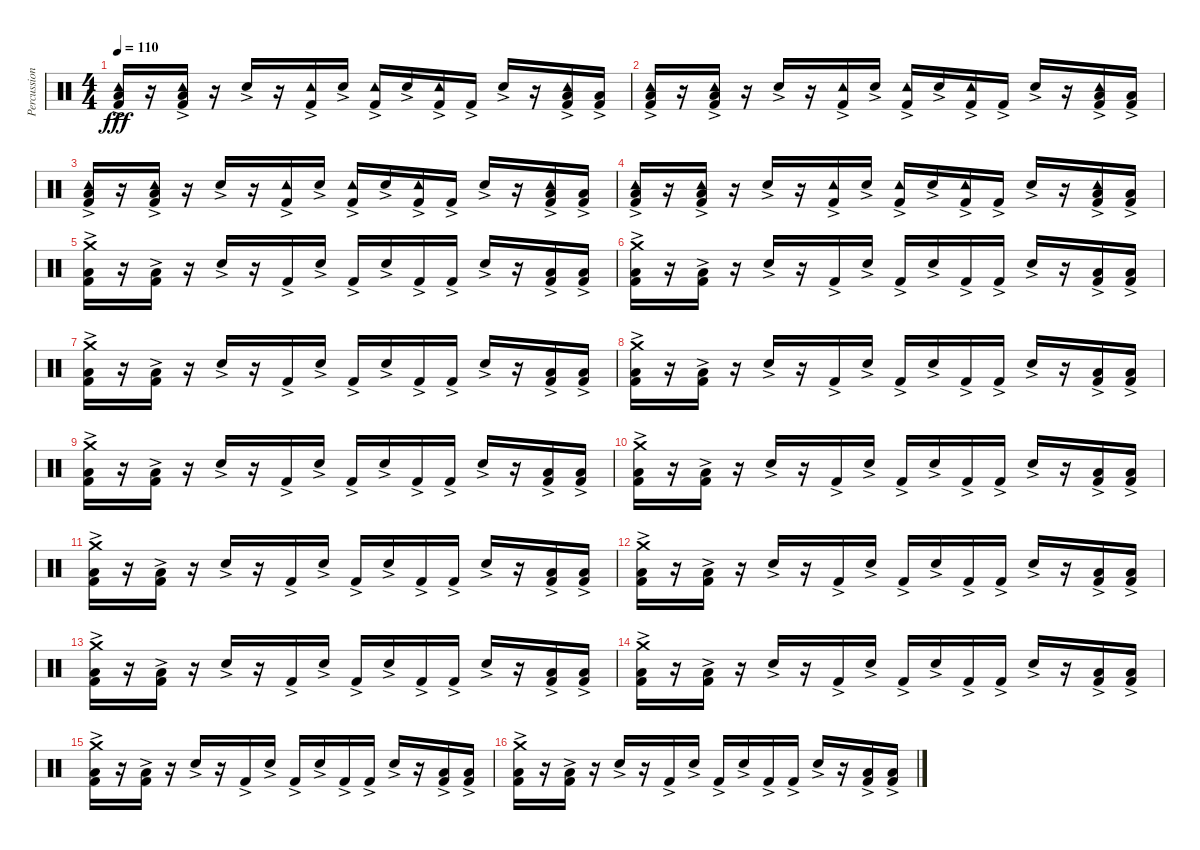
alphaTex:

\track ("Percussion" "Percussion") {instrument percussion}
\staff {score}
\articulation defaults
\ts (4 4)
\tempo 110
\clef neutral
\ks c
("Kick (hit) 2"{ac} "Low Floor Tom (hit)" "Tambourine (hit)"{ac}).16{dy fff} r.16 ("Kick (hit) 2"{ac} "Low Floor Tom (hit)" "Tambourine (hit)"{ac}).16 r.16 "Snare (hit) 2"{ac}.16 r.16 ("Kick (hit) 2"{ac} "Tambourine (hit)"{ac}).16 "Snare (hit) 2"{ac}.16 ("Kick (hit) 2"{ac} "Tambourine (hit)"{ac}).16 "Snare (hit) 2"{ac}.16 ("Kick (hit) 2"{ac} "Tambourine (hit)"{ac}).16 "Kick (hit) 2"{ac}.16 "Snare (hit) 2"{ac}.16 r.16 ("Kick (hit) 2"{ac} "Low Floor Tom (hit)" "Tambourine (hit)"{ac}).16 ("Kick (hit) 2"{ac} "Low Floor Tom (hit)").16 |
("Kick (hit) 2"{ac} "Low Floor Tom (hit)" "Tambourine (hit)"{ac}).16 r.16 ("Kick (hit) 2"{ac} "Low Floor Tom (hit)" "Tambourine (hit)"{ac}).16 r.16 "Snare (hit) 2"{ac}.16 r.16 ("Kick (hit) 2"{ac} "Tambourine (hit)"{ac}).16 "Snare (hit) 2"{ac}.16 ("Kick (hit) 2"{ac} "Tambourine (hit)"{ac}).16 "Snare (hit) 2"{ac}.16 ("Kick (hit) 2"{ac} "Tambourine (hit)"{ac}).16 "Kick (hit) 2"{ac}.16 "Snare (hit) 2"{ac}.16 r.16 ("Kick (hit) 2"{ac} "Low Floor Tom (hit)" "Tambourine (hit)"{ac}).16 ("Kick (hit) 2"{ac} "Low Floor Tom (hit)").16 |
("Kick (hit) 2"{ac} "Low Floor Tom (hit)" "Tambourine (hit)"{ac}).16 r.16 ("Kick (hit) 2"{ac} "Low Floor Tom (hit)" "Tambourine (hit)"{ac}).16 r.16 "Snare (hit) 2"{ac}.16 r.16 ("Kick (hit) 2"{ac} "Tambourine (hit)"{ac}).16 "Snare (hit) 2"{ac}.16 ("Kick (hit) 2"{ac} "Tambourine (hit)"{ac}).16 "Snare (hit) 2"{ac}.16 ("Kick (hit) 2"{ac} "Tambourine (hit)"{ac}).16 "Kick (hit) 2"{ac}.16 "Snare (hit) 2"{ac}.16 r.16 ("Kick (hit) 2"{ac} "Low Floor Tom (hit)" "Tambourine (hit)"{ac}).16 ("Kick (hit) 2"{ac} "Low Floor Tom (hit)").16 |
("Kick (hit) 2"{ac} "Low Floor Tom (hit)" "Tambourine (hit)"{ac}).16 r.16 ("Kick (hit) 2"{ac} "Low Floor Tom (hit)" "Tambourine (hit)"{ac}).16 r.16 "Snare (hit) 2"{ac}.16 r.16 ("Kick (hit) 2"{ac} "Tambourine (hit)"{ac}).16 "Snare (hit) 2"{ac}.16 ("Kick (hit) 2"{ac} "Tambourine (hit)"{ac}).16 "Snare (hit) 2"{ac}.16 ("Kick (hit) 2"{ac} "Tambourine (hit)"{ac}).16 "Kick (hit) 2"{ac}.16 "Snare (hit) 2"{ac}.16 r.16 ("Kick (hit) 2"{ac} "Low Floor Tom (hit)" "Tambourine (hit)"{ac}).16 ("Kick (hit) 2"{ac} "Low Floor Tom (hit)").16 |
("Crash medium (hit)" "Kick (hit) 2"{ac} "Low Floor Tom (hit)").16 r.16 ("Kick (hit) 2"{ac} "Low Floor Tom (hit)").16 r.16 "Snare (hit) 2"{ac}.16 r.16 "Kick (hit) 2"{ac}.16 "Snare (hit) 2"{ac}.16 "Kick (hit) 2"{ac}.16 "Snare (hit) 2"{ac}.16 "Kick (hit) 2"{ac}.16 "Kick (hit) 2"{ac}.16 "Snare (hit) 2"{ac}.16 r.16 ("Kick (hit) 2"{ac} "Low Floor Tom (hit)").16 ("Kick (hit) 2"{ac} "Low Floor Tom (hit)").16 |
("Crash medium (hit)" "Kick (hit) 2"{ac} "Low Floor Tom (hit)").16 r.16 ("Kick (hit) 2"{ac} "Low Floor Tom (hit)").16 r.16 "Snare (hit) 2"{ac}.16 r.16 "Kick (hit) 2"{ac}.16 "Snare (hit) 2"{ac}.16 "Kick (hit) 2"{ac}.16 "Snare (hit) 2"{ac}.16 "Kick (hit) 2"{ac}.16 "Kick (hit) 2"{ac}.16 "Snare (hit) 2"{ac}.16 r.16 ("Kick (hit) 2"{ac} "Low Floor Tom (hit)").16 ("Kick (hit) 2"{ac} "Low Floor Tom (hit)").16 |
("Crash medium (hit)" "Kick (hit) 2"{ac} "Low Floor Tom (hit)").16 r.16 ("Kick (hit) 2"{ac} "Low Floor Tom (hit)").16 r.16 "Snare (hit) 2"{ac}.16 r.16 "Kick (hit) 2"{ac}.16 "Snare (hit) 2"{ac}.16 "Kick (hit) 2"{ac}.16 "Snare (hit) 2"{ac}.16 "Kick (hit) 2"{ac}.16 "Kick (hit) 2"{ac}.16 "Snare (hit) 2"{ac}.16 r.16 ("Kick (hit) 2"{ac} "Low Floor Tom (hit)").16 ("Kick (hit) 2"{ac} "Low Floor Tom (hit)").16 |
("Crash medium (hit)" "Kick (hit) 2"{ac} "Low Floor Tom (hit)").16 r.16 ("Kick (hit) 2"{ac} "Low Floor Tom (hit)").16 r.16 "Snare (hit) 2"{ac}.16 r.16 "Kick (hit) 2"{ac}.16 "Snare (hit) 2"{ac}.16 "Kick (hit) 2"{ac}.16 "Snare (hit) 2"{ac}.16 "Kick (hit) 2"{ac}.16 "Kick (hit) 2"{ac}.16 "Snare (hit) 2"{ac}.16 r.16 ("Kick (hit) 2"{ac} "Low Floor Tom (hit)").16 ("Kick (hit) 2"{ac} "Low Floor Tom (hit)").16 |
("Crash medium (hit)" "Kick (hit) 2"{ac} "Low Floor Tom (hit)").16 r.16 ("Kick (hit) 2"{ac} "Low Floor Tom (hit)").16 r.16 "Snare (hit) 2"{ac}.16 r.16 "Kick (hit) 2"{ac}.16 "Snare (hit) 2"{ac}.16 "Kick (hit) 2"{ac}.16 "Snare (hit) 2"{ac}.16 "Kick (hit) 2"{ac}.16 "Kick (hit) 2"{ac}.16 "Snare (hit) 2"{ac}.16 r.16 ("Kick (hit) 2"{ac} "Low Floor Tom (hit)").16 ("Kick (hit) 2"{ac} "Low Floor Tom (hit)").16 |
("Crash medium (hit)" "Kick (hit) 2"{ac} "Low Floor Tom (hit)").16 r.16 ("Kick (hit) 2"{ac} "Low Floor Tom (hit)").16 r.16 "Snare (hit) 2"{ac}.16 r.16 "Kick (hit) 2"{ac}.16 "Snare (hit) 2"{ac}.16 "Kick (hit) 2"{ac}.16 "Snare (hit) 2"{ac}.16 "Kick (hit) 2"{ac}.16 "Kick (hit) 2"{ac}.16 "Snare (hit) 2"{ac}.16 r.16 ("Kick (hit) 2"{ac} "Low Floor Tom (hit)").16 ("Kick (hit) 2"{ac} "Low Floor Tom (hit)").16 |
("Crash medium (hit)" "Kick (hit) 2"{ac} "Low Floor Tom (hit)").16 r.16 ("Kick (hit) 2"{ac} "Low Floor Tom (hit)").16 r.16 "Snare (hit) 2"{ac}.16 r.16 "Kick (hit) 2"{ac}.16 "Snare (hit) 2"{ac}.16 "Kick (hit) 2"{ac}.16 "Snare (hit) 2"{ac}.16 "Kick (hit) 2"{ac}.16 "Kick (hit) 2"{ac}.16 "Snare (hit) 2"{ac}.16 r.16 ("Kick (hit) 2"{ac} "Low Floor Tom (hit)").16 ("Kick (hit) 2"{ac} "Low Floor Tom (hit)").16 |
("Crash medium (hit)" "Kick (hit) 2"{ac} "Low Floor Tom (hit)").16 r.16 ("Kick (hit) 2"{ac} "Low Floor Tom (hit)").16 r.16 "Snare (hit) 2"{ac}.16 r.16 "Kick (hit) 2"{ac}.16 "Snare (hit) 2"{ac}.16 "Kick (hit) 2"{ac}.16 "Snare (hit) 2"{ac}.16 "Kick (hit) 2"{ac}.16 "Kick (hit) 2"{ac}.16 "Snare (hit) 2"{ac}.16 r.16 ("Kick (hit) 2"{ac} "Low Floor Tom (hit)").16 ("Kick (hit) 2"{ac} "Low Floor Tom (hit)").16 |
("Crash medium (hit)" "Kick (hit) 2"{ac} "Low Floor Tom (hit)").16 r.16 ("Kick (hit) 2"{ac} "Low Floor Tom (hit)").16 r.16 "Snare (hit) 2"{ac}.16 r.16 "Kick (hit) 2"{ac}.16 "Snare (hit) 2"{ac}.16 "Kick (hit) 2"{ac}.16 "Snare (hit) 2"{ac}.16 "Kick (hit) 2"{ac}.16 "Kick (hit) 2"{ac}.16 "Snare (hit) 2"{ac}.16 r.16 ("Kick (hit) 2"{ac} "Low Floor Tom (hit)").16 ("Kick (hit) 2"{ac} "Low Floor Tom (hit)").16 |
("Crash medium (hit)" "Kick (hit) 2"{ac} "Low Floor Tom (hit)").16 r.16 ("Kick (hit) 2"{ac} "Low Floor Tom (hit)").16 r.16 "Snare (hit) 2"{ac}.16 r.16 "Kick (hit) 2"{ac}.16 "Snare (hit) 2"{ac}.16 "Kick (hit) 2"{ac}.16 "Snare (hit) 2"{ac}.16 "Kick (hit) 2"{ac}.16 "Kick (hit) 2"{ac}.16 "Snare (hit) 2"{ac}.16 r.16 ("Kick (hit) 2"{ac} "Low Floor Tom (hit)").16 ("Kick (hit) 2"{ac} "Low Floor Tom (hit)").16 |
("Crash medium (hit)" "Kick (hit) 2"{ac} "Low Floor Tom (hit)").16 r.16 ("Kick (hit) 2"{ac} "Low Floor Tom (hit)").16 r.16 "Snare (hit) 2"{ac}.16 r.16 "Kick (hit) 2"{ac}.16 "Snare (hit) 2"{ac}.16 "Kick (hit) 2"{ac}.16 "Snare (hit) 2"{ac}.16 "Kick (hit) 2"{ac}.16 "Kick (hit) 2"{ac}.16 "Snare (hit) 2"{ac}.16 r.16 ("Kick (hit) 2"{ac} "Low Floor Tom (hit)").16 ("Kick (hit) 2"{ac} "Low Floor Tom (hit)").16 |
("Crash medium (hit)" "Kick (hit) 2"{ac} "Low Floor Tom (hit)").16 r.16 ("Kick (hit) 2"{ac} "Low Floor Tom (hit)").16 r.16 "Snare (hit) 2"{ac}.16 r.16 "Kick (hit) 2"{ac}.16 "Snare (hit) 2"{ac}.16 "Kick (hit) 2"{ac}.16 "Snare (hit) 2"{ac}.16 "Kick (hit) 2"{ac}.16 "Kick (hit) 2"{ac}.16 "Snare (hit) 2"{ac}.16 r.16 ("Kick (hit) 2"{ac} "Low Floor Tom (hit)").16 ("Kick (hit) 2"{ac} "Low Floor Tom (hit)").16
